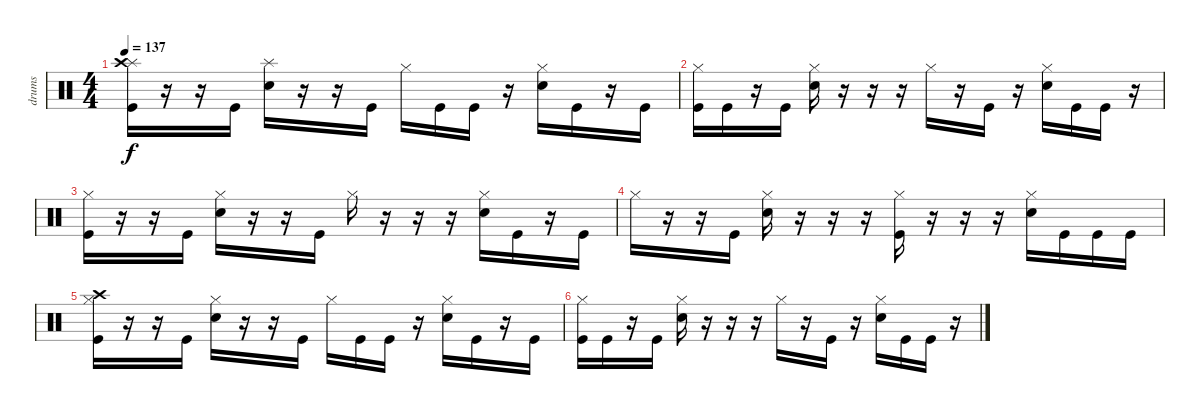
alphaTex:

\track ("drums" "drums") {instrument percussion}
\staff {score}
\articulation defaults
\ts (4 4)
\tempo 137
\clef neutral
\ks c
("Splash (hit)" "Crash high (hit)" "Kick (hit)").16{dy f} r.16 r.16 "Kick (hit)".16 ("Splash (hit)" "Electric Snare (hit)").16 r.16 r.16 "Kick (hit)".16 "Hi-Hat (closed)".16 "Kick (hit)".16 "Kick (hit)".16 r.16 ("Hi-Hat (closed)" "Electric Snare (hit)").16 "Kick (hit)".16 r.16 "Kick (hit)".16 |
("Hi-Hat (closed)" "Kick (hit)").16 "Kick (hit)".16 r.16 "Kick (hit)".16 ("Hi-Hat (closed)" "Electric Snare (hit)").16 r.16 r.16 r.16 "Hi-Hat (closed)".16 r.16 "Kick (hit)".16 r.16 ("Hi-Hat (closed)" "Electric Snare (hit)").16 "Kick (hit)".16 "Kick (hit)".16 r.16 |
("Hi-Hat (closed)" "Kick (hit)").16 r.16 r.16 "Kick (hit)".16 ("Hi-Hat (closed)" "Electric Snare (hit)").16 r.16 r.16 "Kick (hit)".16 "Hi-Hat (closed)".16 r.16 r.16 r.16 ("Hi-Hat (closed)" "Electric Snare (hit)").16 "Kick (hit)".16 r.16 "Kick (hit)".16 |
"Hi-Hat (closed)".16 r.16 r.16 "Kick (hit)".16 ("Hi-Hat (closed)" "Electric Snare (hit)").16 r.16 r.16 r.16 ("Hi-Hat (closed)" "Kick (hit)").16 r.16 r.16 r.16 ("Hi-Hat (closed)" "Electric Snare (hit)").16 "Kick (hit)".16 "Kick (hit)".16 "Kick (hit)".16 |
("Hi-Hat (closed)" "Crash high (hit)" "Kick (hit)").16 r.16 r.16 "Kick (hit)".16 ("Hi-Hat (closed)" "Electric Snare (hit)").16 r.16 r.16 "Kick (hit)".16 "Hi-Hat (closed)".16 "Kick (hit)".16 "Kick (hit)".16 r.16 ("Hi-Hat (closed)" "Electric Snare (hit)").16 "Kick (hit)".16 r.16 "Kick (hit)".16 |
("Hi-Hat (closed)" "Kick (hit)").16 "Kick (hit)".16 r.16 "Kick (hit)".16 ("Hi-Hat (closed)" "Electric Snare (hit)").16 r.16 r.16 r.16 "Hi-Hat (closed)".16 r.16 "Kick (hit)".16 r.16 ("Hi-Hat (closed)" "Electric Snare (hit)").16 "Kick (hit)".16 "Kick (hit)".16 r.16
